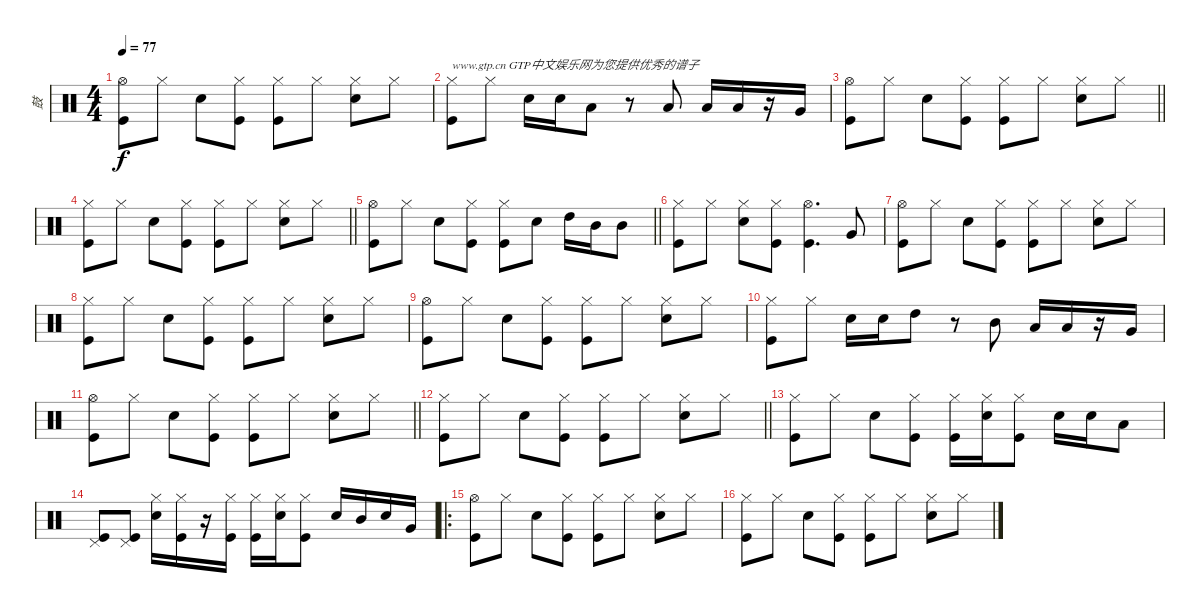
\track ("鼓" "鼓") {instrument percussion}
\staff {score}
\articulation defaults
\ts (4 4)
\tempo 77
\clef neutral
\ks c
("Kick (hit)" "Hi-Hat (open)").8{dy f} "Hi-Hat (closed)".8 "Snare (hit) 2".8 ("Hi-Hat (closed)" "Kick (hit)").8 ("Hi-Hat (closed)" "Kick (hit)").8 "Hi-Hat (closed)".8 ("Hi-Hat (closed)" "Snare (hit) 2").8 "Hi-Hat (closed)".8 |
("Kick (hit)" "Hi-Hat (closed)").8{txt "www.gtp.cn GTP中文娱乐网为您提供优秀的谱子"} "Hi-Hat (closed)".8 "Snare (hit) 2".16 "Snare (hit) 2".16 "Low Tom (hit)".8 r.8 "Low Tom (hit)".8 "Low Tom (hit)".16 "Low Tom (hit)".16 r.16 "Very Low Tom (hit)".16 |
\barLineRight lightlight
("Hi-Hat (open)" "Kick (hit)").8 "Hi-Hat (closed)".8 "Snare (hit) 2".8 ("Hi-Hat (closed)" "Kick (hit)").8 ("Hi-Hat (closed)" "Kick (hit)").8 "Hi-Hat (closed)".8 ("Hi-Hat (closed)" "Snare (hit) 2").8 "Hi-Hat (closed)".8 |
\section ("" "")
\barLineRight lightlight
("Kick (hit)" "Hi-Hat (closed)").8 "Hi-Hat (closed)".8 "Snare (hit) 2".8 ("Hi-Hat (closed)" "Kick (hit)").8 ("Hi-Hat (closed)" "Kick (hit)").8 "Hi-Hat (closed)".8 ("Hi-Hat (closed)" "Snare (hit) 2").8 "Hi-Hat (closed)".8 |
\section ("" "")
\barLineRight lightlight
("Kick (hit)" "Hi-Hat (open)").8 "Hi-Hat (closed)".8 "Snare (hit) 2".8 ("Hi-Hat (closed)" "Kick (hit)").8 ("Hi-Hat (closed)" "Kick (hit)").8 "Snare (hit) 2".8 "High Tom (hit)".16 "Mid Tom (hit)".16 "Mid Tom (hit)".8 |
\section ("" "")
("Hi-Hat (closed)" "Kick (hit)").8 "Hi-Hat (closed)".8 ("Hi-Hat (closed)" "Snare (hit) 2").8 ("Hi-Hat (closed)" "Kick (hit)").8 ("Kick (hit)" "Hi-Hat (open)").4{d} "Very Low Tom (hit)".8 |
("Hi-Hat (open)" "Kick (hit)").8 "Hi-Hat (closed)".8 "Snare (hit) 2".8 ("Hi-Hat (closed)" "Kick (hit)").8 ("Hi-Hat (closed)" "Kick (hit)").8 "Hi-Hat (closed)".8 ("Hi-Hat (closed)" "Snare (hit) 2").8 "Hi-Hat (closed)".8 |
("Kick (hit)" "Hi-Hat (closed)").8 "Hi-Hat (closed)".8 "Snare (hit) 2".8 ("Hi-Hat (closed)" "Kick (hit)").8 ("Hi-Hat (closed)" "Kick (hit)").8 "Hi-Hat (closed)".8 ("Hi-Hat (closed)" "Snare (hit) 2").8 "Hi-Hat (closed)".8 |
("Kick (hit)" "Hi-Hat (open)").8 "Hi-Hat (closed)".8 "Snare (hit) 2".8 ("Hi-Hat (closed)" "Kick (hit)").8 ("Hi-Hat (closed)" "Kick (hit)").8 "Hi-Hat (closed)".8 ("Hi-Hat (closed)" "Snare (hit) 2").8 "Hi-Hat (closed)".8 |
("Kick (hit)" "Hi-Hat (closed)").8 "Hi-Hat (closed)".8 "Snare (hit) 2".16 "Snare (hit) 2".16 "High Tom (hit)".8 r.8 "Mid Tom (hit)".8 "Low Tom (hit)".16 "Low Tom (hit)".16 r.16 "Very Low Tom (hit)".16 |
\barLineRight lightlight
("Kick (hit)" "Hi-Hat (open)").8 "Hi-Hat (closed)".8 "Snare (hit) 2".8 ("Hi-Hat (closed)" "Kick (hit)").8 ("Hi-Hat (closed)" "Kick (hit)").8 "Hi-Hat (closed)".8 ("Hi-Hat (closed)" "Snare (hit) 2").8 "Hi-Hat (closed)".8 |
\barLineRight lightlight
("Kick (hit)" "Hi-Hat (closed)").8 "Hi-Hat (closed)".8 "Snare (hit) 2".8 ("Hi-Hat (closed)" "Kick (hit)").8 ("Hi-Hat (closed)" "Kick (hit)").8 "Hi-Hat (closed)".8 ("Hi-Hat (closed)" "Snare (hit) 2").8 "Hi-Hat (closed)".8 |
("Kick (hit)" "Hi-Hat (closed)").8 "Hi-Hat (closed)".8 "Snare (hit) 2".8 ("Hi-Hat (closed)" "Kick (hit)").8 ("Hi-Hat (closed)" "Kick (hit)").16 ("Hi-Hat (closed)" "Snare (hit) 2").16 ("Hi-Hat (closed)" "Kick (hit)").8 "Snare (hit) 2".16 "Snare (hit) 2".16 "Low Tom (hit)".8 |
("Pedal Hi-Hat (hit)" "Kick (hit)").8 ("Pedal Hi-Hat (hit)" "Kick (hit)").8 ("Hi-Hat (closed)" "Snare (hit) 2").16 ("Hi-Hat (closed)" "Kick (hit)").16 r.16 ("Hi-Hat (closed)" "Kick (hit)").16 ("Hi-Hat (closed)" "Kick (hit)").16 ("Hi-Hat (closed)" "Snare (hit) 2").16 ("Hi-Hat (closed)" "Kick (hit)").8 "Snare (hit) 2".16 "Mid Tom (hit)".16 "Snare (hit) 2".16 "Very Low Tom (hit)".16 |
\ro
("Hi-Hat (open)" "Kick (hit)").8 "Hi-Hat (closed)".8 "Snare (hit) 2".8 ("Hi-Hat (closed)" "Kick (hit)").8 ("Hi-Hat (closed)" "Kick (hit)").8 "Hi-Hat (closed)".8 ("Hi-Hat (closed)" "Snare (hit) 2").8 "Hi-Hat (closed)".8 |
("Kick (hit)" "Hi-Hat (closed)").8 "Hi-Hat (closed)".8 "Snare (hit) 2".8 ("Hi-Hat (closed)" "Kick (hit)").8 ("Hi-Hat (closed)" "Kick (hit)").8 "Hi-Hat (closed)".8 ("Hi-Hat (closed)" "Snare (hit) 2").8 "Hi-Hat (closed)".8
